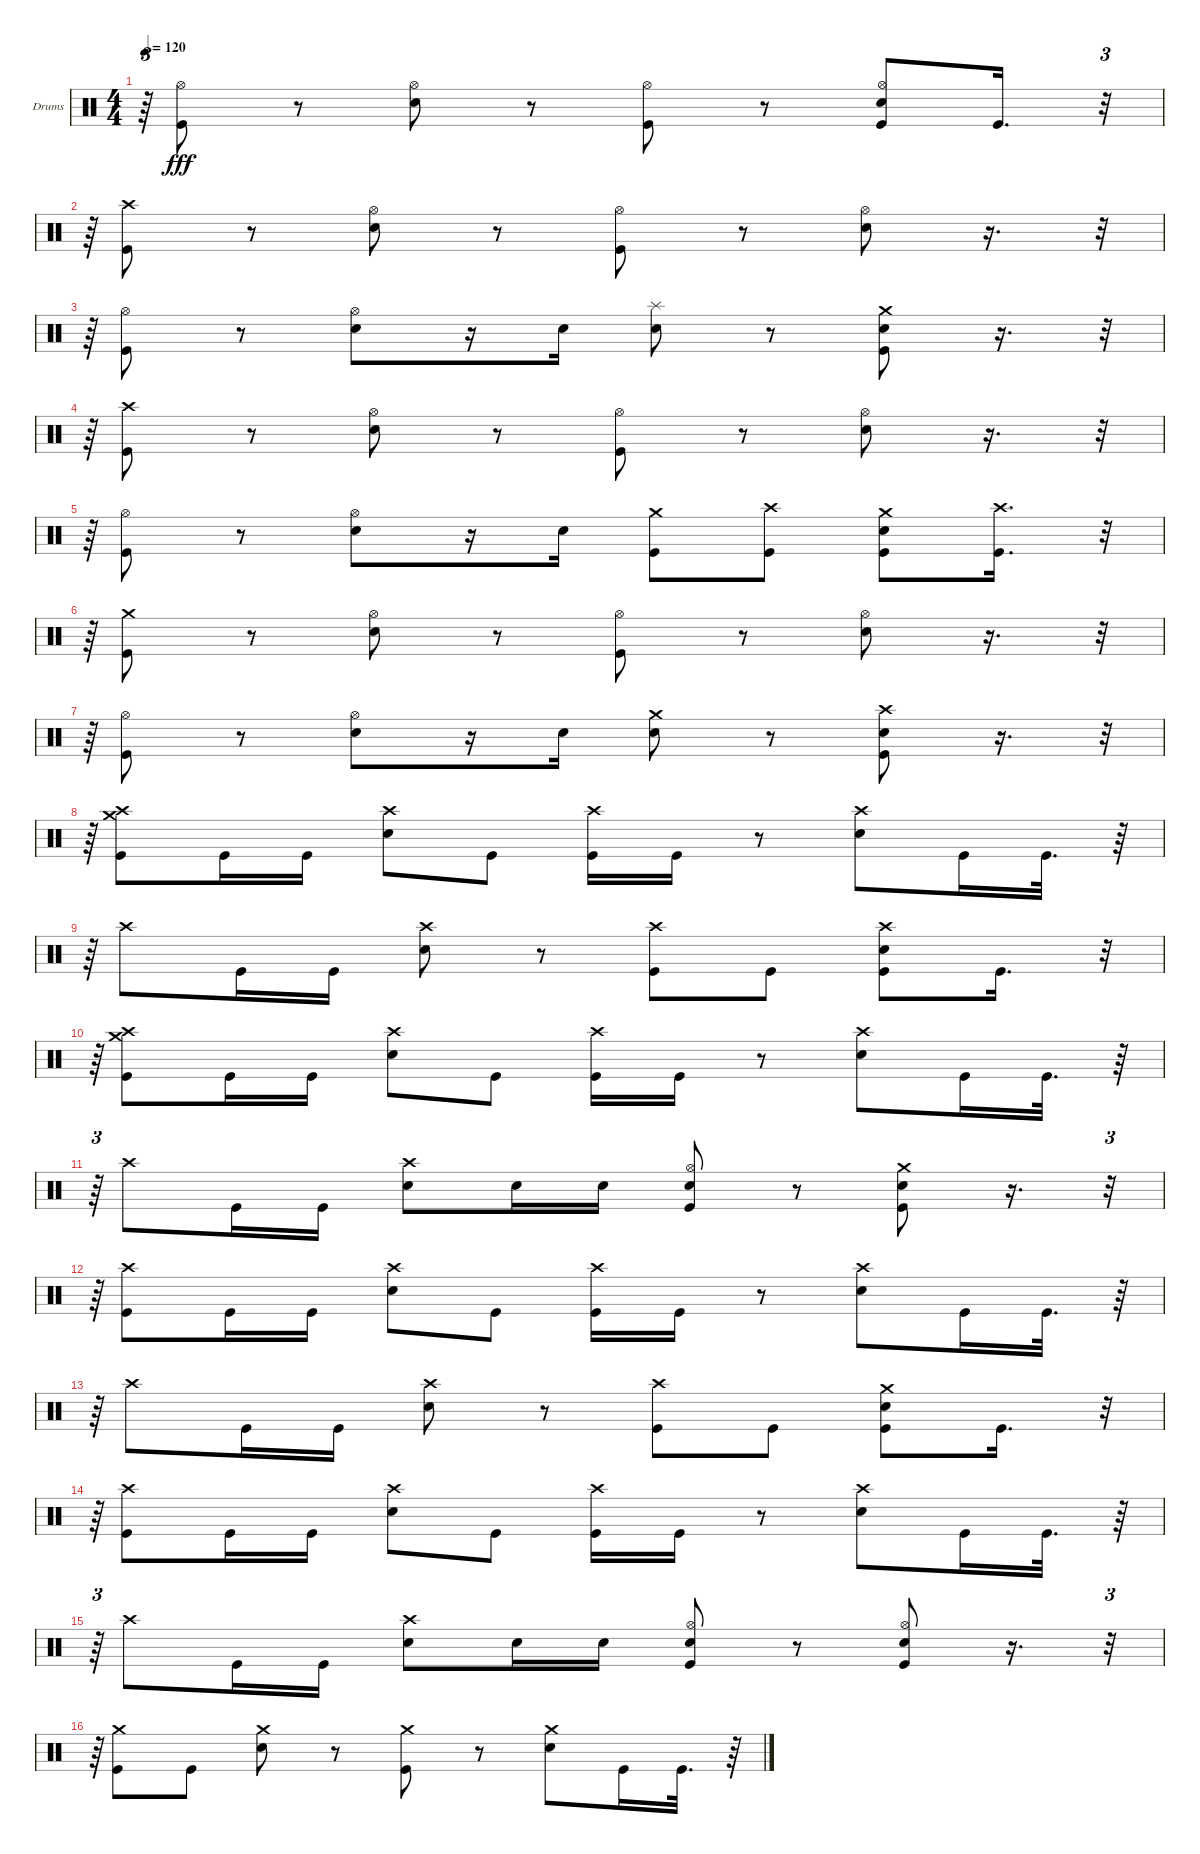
\bracketExtendMode groupsimilarinstruments
\firstSystemTrackNameOrientation horizontal
\otherSystemsTrackNameOrientation horizontal
\track ("Drums" "Drums") {instrument percussion}
\staff {score}
\articulation defaults
\ts (4 4)
\tempo 120
\clef neutral
\ks c
r.64{tu (3 2) dy fff} ("Kick (hit)" "Hi-Hat (open)").8 r.8 ("Snare (hit) 2" "Hi-Hat (open)").8 r.8 ("Kick (hit)" "Hi-Hat (open)").8 r.8 ("Kick (hit)" "Snare (hit) 2" "Hi-Hat (open)").8 "Kick (hit)".16{d} r.32{tu (3 2)} |
r.64{tu (3 2)} ("Kick (hit)" "Crash high (hit)").8 r.8 ("Snare (hit) 2" "Hi-Hat (open)").8 r.8 ("Kick (hit)" "Hi-Hat (open)").8 r.8 ("Snare (hit) 2" "Hi-Hat (open)").8 r.16{d} r.32{tu (3 2)} |
r.64{tu (3 2)} ("Kick (hit)" "Hi-Hat (open)").8 r.8 ("Snare (hit) 2" "Hi-Hat (open)").8 r.16 "Snare (hit) 2".16 ("Snare (hit) 2" "Splash (hit)").8 r.8 ("Crash medium (hit)" "Snare (hit) 2" "Kick (hit)").8 r.16{d} r.32{tu (3 2)} |
r.64{tu (3 2)} ("Kick (hit)" "Crash high (hit)").8 r.8 ("Snare (hit) 2" "Hi-Hat (open)").8 r.8 ("Kick (hit)" "Hi-Hat (open)").8 r.8 ("Snare (hit) 2" "Hi-Hat (open)").8 r.16{d} r.32{tu (3 2)} |
r.64{tu (3 2)} ("Kick (hit)" "Hi-Hat (open)").8 r.8 ("Snare (hit) 2" "Hi-Hat (open)").8 r.16 "Snare (hit) 2".16 ("Kick (hit)" "Crash medium (hit)").8 ("Kick (hit)" "Crash high (hit)").8 ("Kick (hit)" "Snare (hit) 2" "Crash medium (hit)").8 ("Kick (hit)" "Crash high (hit)").16{d} r.32{tu (3 2)} |
r.64{tu (3 2)} ("Kick (hit)" "Crash medium (hit)").8 r.8 ("Snare (hit) 2" "Hi-Hat (open)").8 r.8 ("Kick (hit)" "Hi-Hat (open)").8 r.8 ("Snare (hit) 2" "Hi-Hat (open)").8 r.16{d} r.32{tu (3 2)} |
r.64{tu (3 2)} ("Kick (hit)" "Hi-Hat (open)").8 r.8 ("Snare (hit) 2" "Hi-Hat (open)").8 r.16 "Snare (hit) 2".16 ("Snare (hit) 2" "Crash medium (hit)").8 r.8 ("Snare (hit) 2" "Kick (hit)" "Crash high (hit)").8 r.16{d} r.32{tu (3 2)} |
r.64{tu (3 2)} ("Crash high (hit)" "Crash medium (hit)" "Kick (hit)").8 "Kick (hit)".16 "Kick (hit)".16 ("Snare (hit) 2" "Crash high (hit)").8 "Kick (hit)".8 ("Crash high (hit)" "Kick (hit)").16 "Kick (hit)".16 r.8 ("Snare (hit) 2" "Crash high (hit)").8 "Kick (hit)".16 "Kick (hit)".32{d} r.64 |
r.64{tu (3 2)} "Crash high (hit)".8 "Kick (hit)".16 "Kick (hit)".16 ("Snare (hit) 2" "Crash high (hit)").8 r.8 ("Kick (hit)" "Crash high (hit)").8 "Kick (hit)".8 ("Kick (hit)" "Crash high (hit)" "Snare (hit) 2").8 "Kick (hit)".16{d} r.32{tu (3 2)} |
r.64{tu (3 2)} ("Crash medium (hit)" "Crash high (hit)" "Kick (hit)").8 "Kick (hit)".16 "Kick (hit)".16 ("Snare (hit) 2" "Crash high (hit)").8 "Kick (hit)".8 ("Crash high (hit)" "Kick (hit)").16 "Kick (hit)".16 r.8 ("Snare (hit) 2" "Crash high (hit)").8 "Kick (hit)".16 "Kick (hit)".32{d} r.64 |
r.64{tu (3 2)} "Crash high (hit)".8 "Kick (hit)".16 "Kick (hit)".16 ("Snare (hit) 2" "Crash high (hit)").8 "Snare (hit) 2".16 "Snare (hit) 2".16 ("Hi-Hat (open)" "Snare (hit) 2" "Kick (hit)").8 r.8 ("Kick (hit)" "Snare (hit) 2" "Crash medium (hit)").8 r.16{d} r.32{tu (3 2)} |
r.64{tu (3 2)} ("Kick (hit)" "Crash high (hit)").8 "Kick (hit)".16 "Kick (hit)".16 ("Snare (hit) 2" "Crash high (hit)").8 "Kick (hit)".8 ("Kick (hit)" "Crash high (hit)").16 "Kick (hit)".16 r.8 ("Snare (hit) 2" "Crash high (hit)").8 "Kick (hit)".16 "Kick (hit)".32{d} r.64 |
r.64{tu (3 2)} "Crash high (hit)".8 "Kick (hit)".16 "Kick (hit)".16 ("Snare (hit) 2" "Crash high (hit)").8 r.8 ("Kick (hit)" "Crash high (hit)").8 "Kick (hit)".8 ("Kick (hit)" "Snare (hit) 2" "Crash medium (hit)").8 "Kick (hit)".16{d} r.32{tu (3 2)} |
r.64{tu (3 2)} ("Kick (hit)" "Crash high (hit)").8 "Kick (hit)".16 "Kick (hit)".16 ("Snare (hit) 2" "Crash high (hit)").8 "Kick (hit)".8 ("Kick (hit)" "Crash high (hit)").16 "Kick (hit)".16 r.8 ("Snare (hit) 2" "Crash high (hit)").8 "Kick (hit)".16 "Kick (hit)".32{d} r.64 |
r.64{tu (3 2)} "Crash high (hit)".8 "Kick (hit)".16 "Kick (hit)".16 ("Snare (hit) 2" "Crash high (hit)").8 "Snare (hit) 2".16 "Snare (hit) 2".16 ("Snare (hit) 2" "Kick (hit)" "Hi-Hat (open)").8 r.8 ("Kick (hit)" "Hi-Hat (open)" "Snare (hit) 2").8 r.16{d} r.32{tu (3 2)} |
r.64{tu (3 2)} ("Kick (hit)" "Crash medium (hit)").8 "Kick (hit)".8 ("Snare (hit) 2" "Crash medium (hit)").8 r.8 ("Kick (hit)" "Crash medium (hit)").8 r.8 ("Snare (hit) 2" "Crash medium (hit)").8 "Kick (hit)".16 "Kick (hit)".32{d} r.64
